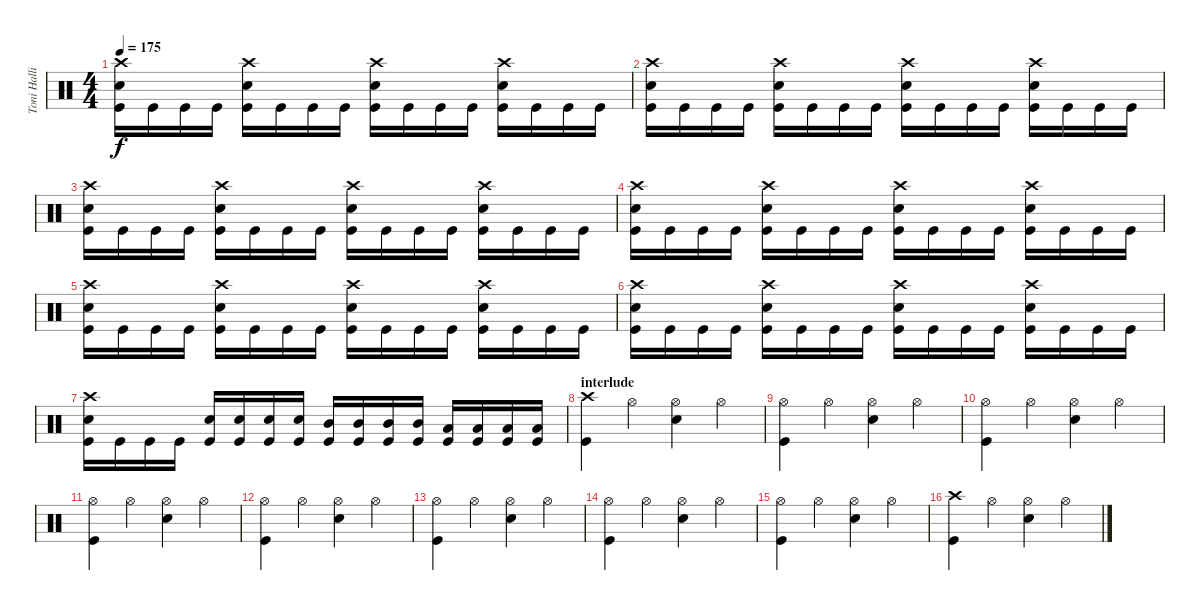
\track ("Toni Hallio" "Toni Halli") {instrument percussion}
\staff {score}
\articulation defaults
\ts (4 4)
\tempo 175
\clef neutral
\ks c
("Crash high (hit)" "Snare (hit) 2" "Kick (hit)").16{dy f} "Kick (hit)".16 "Kick (hit)".16 "Kick (hit)".16 ("Crash high (hit)" "Snare (hit) 2" "Kick (hit)").16 "Kick (hit)".16 "Kick (hit)".16 "Kick (hit)".16 ("Crash high (hit)" "Snare (hit) 2" "Kick (hit)").16 "Kick (hit)".16 "Kick (hit)".16 "Kick (hit)".16 ("Crash high (hit)" "Snare (hit) 2" "Kick (hit)").16 "Kick (hit)".16 "Kick (hit)".16 "Kick (hit)".16 |
("Crash high (hit)" "Snare (hit) 2" "Kick (hit)").16 "Kick (hit)".16 "Kick (hit)".16 "Kick (hit)".16 ("Crash high (hit)" "Snare (hit) 2" "Kick (hit)").16 "Kick (hit)".16 "Kick (hit)".16 "Kick (hit)".16 ("Crash high (hit)" "Snare (hit) 2" "Kick (hit)").16 "Kick (hit)".16 "Kick (hit)".16 "Kick (hit)".16 ("Crash high (hit)" "Snare (hit) 2" "Kick (hit)").16 "Kick (hit)".16 "Kick (hit)".16 "Kick (hit)".16 |
("Crash high (hit)" "Snare (hit) 2" "Kick (hit)").16 "Kick (hit)".16 "Kick (hit)".16 "Kick (hit)".16 ("Crash high (hit)" "Snare (hit) 2" "Kick (hit)").16 "Kick (hit)".16 "Kick (hit)".16 "Kick (hit)".16 ("Crash high (hit)" "Snare (hit) 2" "Kick (hit)").16 "Kick (hit)".16 "Kick (hit)".16 "Kick (hit)".16 ("Crash high (hit)" "Snare (hit) 2" "Kick (hit)").16 "Kick (hit)".16 "Kick (hit)".16 "Kick (hit)".16 |
("Crash high (hit)" "Snare (hit) 2" "Kick (hit)").16 "Kick (hit)".16 "Kick (hit)".16 "Kick (hit)".16 ("Crash high (hit)" "Snare (hit) 2" "Kick (hit)").16 "Kick (hit)".16 "Kick (hit)".16 "Kick (hit)".16 ("Crash high (hit)" "Snare (hit) 2" "Kick (hit)").16 "Kick (hit)".16 "Kick (hit)".16 "Kick (hit)".16 ("Crash high (hit)" "Snare (hit) 2" "Kick (hit)").16 "Kick (hit)".16 "Kick (hit)".16 "Kick (hit)".16 |
("Crash high (hit)" "Snare (hit) 2" "Kick (hit)").16 "Kick (hit)".16 "Kick (hit)".16 "Kick (hit)".16 ("Crash high (hit)" "Snare (hit) 2" "Kick (hit)").16 "Kick (hit)".16 "Kick (hit)".16 "Kick (hit)".16 ("Crash high (hit)" "Snare (hit) 2" "Kick (hit)").16 "Kick (hit)".16 "Kick (hit)".16 "Kick (hit)".16 ("Crash high (hit)" "Snare (hit) 2" "Kick (hit)").16 "Kick (hit)".16 "Kick (hit)".16 "Kick (hit)".16 |
("Crash high (hit)" "Snare (hit) 2" "Kick (hit)").16 "Kick (hit)".16 "Kick (hit)".16 "Kick (hit)".16 ("Crash high (hit)" "Snare (hit) 2" "Kick (hit)").16 "Kick (hit)".16 "Kick (hit)".16 "Kick (hit)".16 ("Crash high (hit)" "Snare (hit) 2" "Kick (hit)").16 "Kick (hit)".16 "Kick (hit)".16 "Kick (hit)".16 ("Crash high (hit)" "Snare (hit) 2" "Kick (hit)").16 "Kick (hit)".16 "Kick (hit)".16 "Kick (hit)".16 |
("Crash high (hit)" "Snare (hit) 2" "Kick (hit)").16 "Kick (hit)".16 "Kick (hit)".16 "Kick (hit)".16 ("Snare (hit) 2" "Kick (hit)").16 ("Snare (hit) 2" "Kick (hit)").16 ("Snare (hit) 2" "Kick (hit)").16 ("Snare (hit) 2" "Kick (hit)").16 ("Mid Tom (hit)" "Kick (hit)").16 ("Mid Tom (hit)" "Kick (hit)").16 ("Mid Tom (hit)" "Kick (hit)").16 ("Mid Tom (hit)" "Kick (hit)").16 ("Low Tom (hit)" "Kick (hit)").16 ("Low Tom (hit)" "Kick (hit)").16 ("Low Tom (hit)" "Kick (hit)").16 ("Low Tom (hit)" "Kick (hit)").16 |
\section ("" "interlude")
("Crash high (hit)" "Kick (hit)").4 "Hi-Hat (open)".4 ("Hi-Hat (open)" "Snare (hit) 2").4 "Hi-Hat (open)".4 |
("Hi-Hat (open)" "Kick (hit)").4 "Hi-Hat (open)".4 ("Hi-Hat (open)" "Snare (hit) 2").4 "Hi-Hat (open)".4 |
("Hi-Hat (open)" "Kick (hit)").4 "Hi-Hat (open)".4 ("Hi-Hat (open)" "Snare (hit) 2").4 "Hi-Hat (open)".4 |
("Hi-Hat (open)" "Kick (hit)").4 "Hi-Hat (open)".4 ("Hi-Hat (open)" "Snare (hit) 2").4 "Hi-Hat (open)".4 |
("Hi-Hat (open)" "Kick (hit)").4 "Hi-Hat (open)".4 ("Hi-Hat (open)" "Snare (hit) 2").4 "Hi-Hat (open)".4 |
("Hi-Hat (open)" "Kick (hit)").4 "Hi-Hat (open)".4 ("Hi-Hat (open)" "Snare (hit) 2").4 "Hi-Hat (open)".4 |
("Hi-Hat (open)" "Kick (hit)").4 "Hi-Hat (open)".4 ("Hi-Hat (open)" "Snare (hit) 2").4 "Hi-Hat (open)".4 |
("Hi-Hat (open)" "Kick (hit)").4 "Hi-Hat (open)".4 ("Hi-Hat (open)" "Snare (hit) 2").4 "Hi-Hat (open)".4 |
("Crash high (hit)" "Kick (hit)").4 "Hi-Hat (open)".4 ("Hi-Hat (open)" "Snare (hit) 2").4 "Hi-Hat (open)".4
